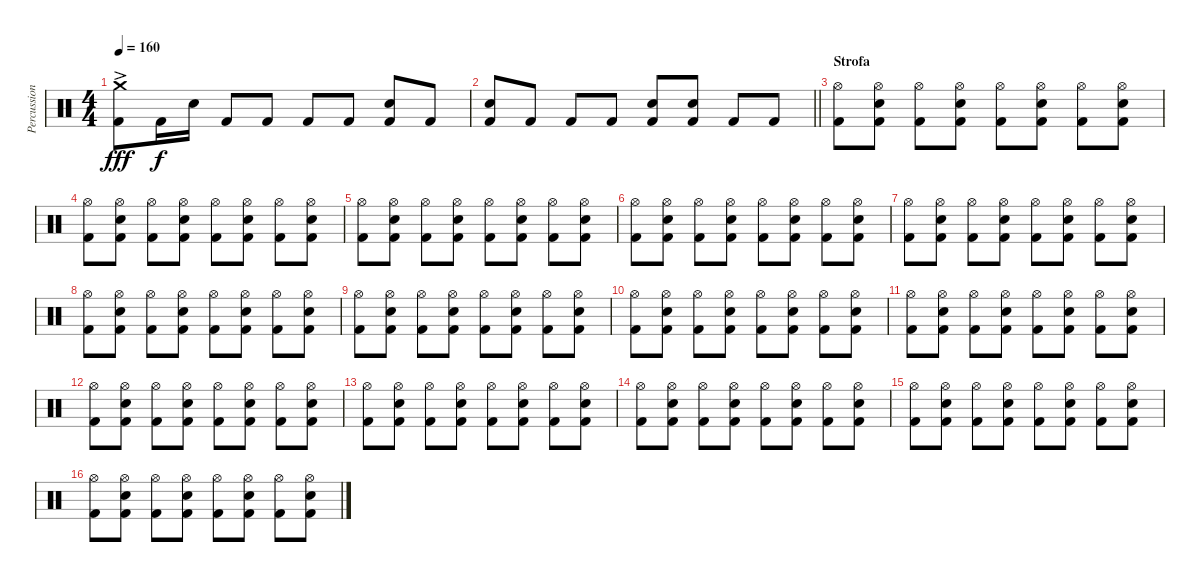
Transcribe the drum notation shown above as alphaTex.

\track ("Percussioni" "Percussion") {instrument percussion}
\staff {score}
\articulation defaults
\ts (4 4)
\tempo 160
\clef neutral
\ks c
("Crash medium (hit)"{ac} "Kick (hit) 2").8{dy fff} "Kick (hit) 2".16{dy f} "Snare (hit) 2".16 "Kick (hit) 2".8 "Kick (hit) 2".8 "Kick (hit) 2".8 "Kick (hit) 2".8 ("Snare (hit) 2" "Kick (hit) 2").8 "Kick (hit) 2".8 |
\barLineRight lightlight
("Snare (hit) 2" "Kick (hit) 2").8 "Kick (hit) 2".8 "Kick (hit) 2".8 "Kick (hit) 2".8 ("Snare (hit) 2" "Kick (hit) 2").8 ("Snare (hit) 2" "Kick (hit) 2").8 "Kick (hit) 2".8 "Kick (hit) 2".8 |
\section ("" "Strofa")
("Hi-Hat (open)" "Kick (hit) 2").8 ("Hi-Hat (open)" "Snare (hit) 2" "Kick (hit) 2").8 ("Hi-Hat (open)" "Kick (hit) 2").8 ("Hi-Hat (open)" "Snare (hit) 2" "Kick (hit) 2").8 ("Hi-Hat (open)" "Kick (hit) 2").8 ("Hi-Hat (open)" "Snare (hit) 2" "Kick (hit) 2").8 ("Hi-Hat (open)" "Kick (hit) 2").8 ("Hi-Hat (open)" "Snare (hit) 2" "Kick (hit) 2").8 |
("Hi-Hat (open)" "Kick (hit) 2").8 ("Hi-Hat (open)" "Snare (hit) 2" "Kick (hit) 2").8 ("Hi-Hat (open)" "Kick (hit) 2").8 ("Hi-Hat (open)" "Snare (hit) 2" "Kick (hit) 2").8 ("Hi-Hat (open)" "Kick (hit) 2").8 ("Hi-Hat (open)" "Snare (hit) 2" "Kick (hit) 2").8 ("Hi-Hat (open)" "Kick (hit) 2").8 ("Hi-Hat (open)" "Snare (hit) 2" "Kick (hit) 2").8 |
("Hi-Hat (open)" "Kick (hit) 2").8 ("Hi-Hat (open)" "Snare (hit) 2" "Kick (hit) 2").8 ("Hi-Hat (open)" "Kick (hit) 2").8 ("Hi-Hat (open)" "Snare (hit) 2" "Kick (hit) 2").8 ("Hi-Hat (open)" "Kick (hit) 2").8 ("Hi-Hat (open)" "Snare (hit) 2" "Kick (hit) 2").8 ("Hi-Hat (open)" "Kick (hit) 2").8 ("Hi-Hat (open)" "Snare (hit) 2" "Kick (hit) 2").8 |
("Hi-Hat (open)" "Kick (hit) 2").8 ("Hi-Hat (open)" "Snare (hit) 2" "Kick (hit) 2").8 ("Hi-Hat (open)" "Kick (hit) 2").8 ("Hi-Hat (open)" "Snare (hit) 2" "Kick (hit) 2").8 ("Hi-Hat (open)" "Kick (hit) 2").8 ("Hi-Hat (open)" "Snare (hit) 2" "Kick (hit) 2").8 ("Hi-Hat (open)" "Kick (hit) 2").8 ("Hi-Hat (open)" "Snare (hit) 2" "Kick (hit) 2").8 |
("Hi-Hat (open)" "Kick (hit) 2").8 ("Hi-Hat (open)" "Snare (hit) 2" "Kick (hit) 2").8 ("Hi-Hat (open)" "Kick (hit) 2").8 ("Hi-Hat (open)" "Snare (hit) 2" "Kick (hit) 2").8 ("Hi-Hat (open)" "Kick (hit) 2").8 ("Hi-Hat (open)" "Snare (hit) 2" "Kick (hit) 2").8 ("Hi-Hat (open)" "Kick (hit) 2").8 ("Hi-Hat (open)" "Snare (hit) 2" "Kick (hit) 2").8 |
("Hi-Hat (open)" "Kick (hit) 2").8 ("Hi-Hat (open)" "Snare (hit) 2" "Kick (hit) 2").8 ("Hi-Hat (open)" "Kick (hit) 2").8 ("Hi-Hat (open)" "Snare (hit) 2" "Kick (hit) 2").8 ("Hi-Hat (open)" "Kick (hit) 2").8 ("Hi-Hat (open)" "Snare (hit) 2" "Kick (hit) 2").8 ("Hi-Hat (open)" "Kick (hit) 2").8 ("Hi-Hat (open)" "Snare (hit) 2" "Kick (hit) 2").8 |
("Hi-Hat (open)" "Kick (hit) 2").8 ("Hi-Hat (open)" "Snare (hit) 2" "Kick (hit) 2").8 ("Hi-Hat (open)" "Kick (hit) 2").8 ("Hi-Hat (open)" "Snare (hit) 2" "Kick (hit) 2").8 ("Hi-Hat (open)" "Kick (hit) 2").8 ("Hi-Hat (open)" "Snare (hit) 2" "Kick (hit) 2").8 ("Hi-Hat (open)" "Kick (hit) 2").8 ("Hi-Hat (open)" "Snare (hit) 2" "Kick (hit) 2").8 |
("Hi-Hat (open)" "Kick (hit) 2").8 ("Hi-Hat (open)" "Snare (hit) 2" "Kick (hit) 2").8 ("Hi-Hat (open)" "Kick (hit) 2").8 ("Hi-Hat (open)" "Snare (hit) 2" "Kick (hit) 2").8 ("Hi-Hat (open)" "Kick (hit) 2").8 ("Hi-Hat (open)" "Snare (hit) 2" "Kick (hit) 2").8 ("Hi-Hat (open)" "Kick (hit) 2").8 ("Hi-Hat (open)" "Snare (hit) 2" "Kick (hit) 2").8 |
("Hi-Hat (open)" "Kick (hit) 2").8 ("Hi-Hat (open)" "Snare (hit) 2" "Kick (hit) 2").8 ("Hi-Hat (open)" "Kick (hit) 2").8 ("Hi-Hat (open)" "Snare (hit) 2" "Kick (hit) 2").8 ("Hi-Hat (open)" "Kick (hit) 2").8 ("Hi-Hat (open)" "Snare (hit) 2" "Kick (hit) 2").8 ("Hi-Hat (open)" "Kick (hit) 2").8 ("Hi-Hat (open)" "Snare (hit) 2" "Kick (hit) 2").8 |
("Hi-Hat (open)" "Kick (hit) 2").8 ("Hi-Hat (open)" "Snare (hit) 2" "Kick (hit) 2").8 ("Hi-Hat (open)" "Kick (hit) 2").8 ("Hi-Hat (open)" "Snare (hit) 2" "Kick (hit) 2").8 ("Hi-Hat (open)" "Kick (hit) 2").8 ("Hi-Hat (open)" "Snare (hit) 2" "Kick (hit) 2").8 ("Hi-Hat (open)" "Kick (hit) 2").8 ("Hi-Hat (open)" "Snare (hit) 2" "Kick (hit) 2").8 |
("Hi-Hat (open)" "Kick (hit) 2").8 ("Hi-Hat (open)" "Snare (hit) 2" "Kick (hit) 2").8 ("Hi-Hat (open)" "Kick (hit) 2").8 ("Hi-Hat (open)" "Snare (hit) 2" "Kick (hit) 2").8 ("Hi-Hat (open)" "Kick (hit) 2").8 ("Hi-Hat (open)" "Snare (hit) 2" "Kick (hit) 2").8 ("Hi-Hat (open)" "Kick (hit) 2").8 ("Hi-Hat (open)" "Snare (hit) 2" "Kick (hit) 2").8 |
("Hi-Hat (open)" "Kick (hit) 2").8 ("Hi-Hat (open)" "Snare (hit) 2" "Kick (hit) 2").8 ("Hi-Hat (open)" "Kick (hit) 2").8 ("Hi-Hat (open)" "Snare (hit) 2" "Kick (hit) 2").8 ("Hi-Hat (open)" "Kick (hit) 2").8 ("Hi-Hat (open)" "Snare (hit) 2" "Kick (hit) 2").8 ("Hi-Hat (open)" "Kick (hit) 2").8 ("Hi-Hat (open)" "Snare (hit) 2" "Kick (hit) 2").8 |
("Hi-Hat (open)" "Kick (hit) 2").8 ("Hi-Hat (open)" "Snare (hit) 2" "Kick (hit) 2").8 ("Hi-Hat (open)" "Kick (hit) 2").8 ("Hi-Hat (open)" "Snare (hit) 2" "Kick (hit) 2").8 ("Hi-Hat (open)" "Kick (hit) 2").8 ("Hi-Hat (open)" "Snare (hit) 2" "Kick (hit) 2").8 ("Hi-Hat (open)" "Kick (hit) 2").8 ("Hi-Hat (open)" "Snare (hit) 2" "Kick (hit) 2").8 |
("Hi-Hat (open)" "Kick (hit) 2").8 ("Hi-Hat (open)" "Snare (hit) 2" "Kick (hit) 2").8 ("Hi-Hat (open)" "Kick (hit) 2").8 ("Hi-Hat (open)" "Snare (hit) 2" "Kick (hit) 2").8 ("Hi-Hat (open)" "Kick (hit) 2").8 ("Hi-Hat (open)" "Snare (hit) 2" "Kick (hit) 2").8 ("Hi-Hat (open)" "Kick (hit) 2").8 ("Hi-Hat (open)" "Snare (hit) 2" "Kick (hit) 2").8
